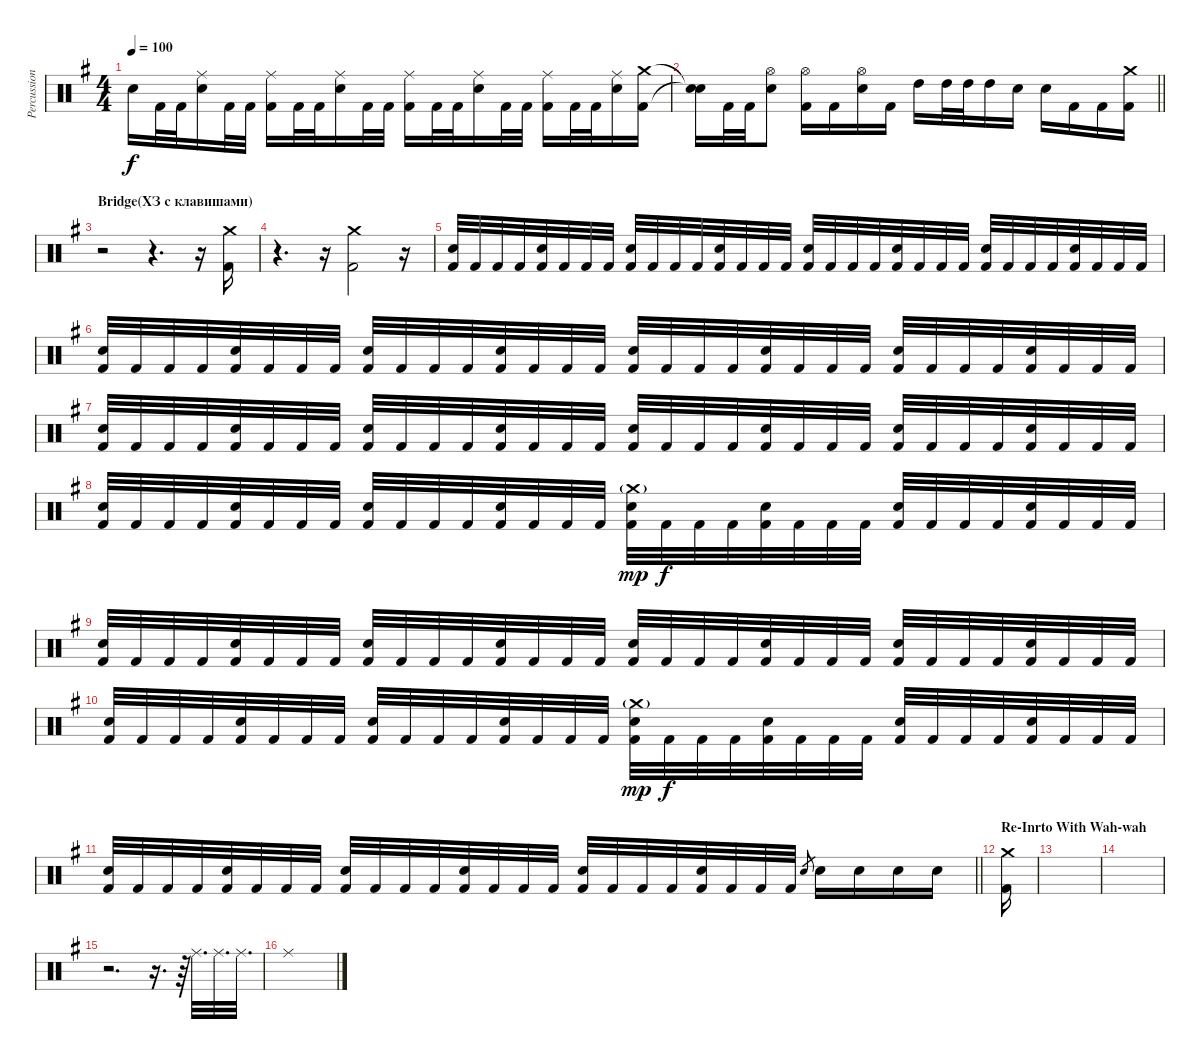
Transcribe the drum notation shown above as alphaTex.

\track ("Percussion" "Percussion") {instrument percussion}
\staff {score}
\articulation defaults
\ts (4 4)
\tempo 100
\clef neutral
\ks eminor "Snare (hit)"{t}.16{dy f} "Kick (hit) 2".32 "Kick (hit) 2".32
("Ride (middle)" "Snare (hit) 2").16 "Kick (hit) 2".32 "Kick (hit) 2".32 ("Ride (middle)" "Kick (hit) 2").16 "Kick (hit) 2".32 "Kick (hit) 2".32 ("Ride (middle)" "Snare (hit) 2").16 "Kick (hit) 2".32 "Kick (hit) 2".32 ("Ride (middle)" "Kick (hit) 2").16 "Kick (hit) 2".32 "Kick (hit) 2".32 ("Ride (middle)" "Snare (hit) 2").16 "Kick (hit) 2".32 "Kick (hit) 2".32 ("Ride (middle)" "Kick (hit) 2").16 "Kick (hit) 2".32 "Kick (hit) 2".32 ("Ride (middle)" "Snare (hit) 2").16 ("Crash medium (hit)" "Kick (hit) 2").16 |
\barLineRight lightlight
("Snare (hit)"{t} "Snare (hit)"{t}).16 "Kick (hit) 2".32 "Kick (hit) 2".32 ("Hi-Hat (open)" "Snare (hit) 2").8 ("Hi-Hat (open)" "Kick (hit) 2").16 "Kick (hit) 2".16 ("Hi-Hat (open)" "Snare (hit) 2").16 "Kick (hit) 2".16 "High Tom (hit)".16 "High Tom (hit)".32 "High Tom (hit)".32 "High Tom (hit)".16 "Snare (hit) 2".16 "Snare (hit) 2".16 "Kick (hit) 2".16 "Kick (hit) 2".16 ("Crash medium (hit)" "Kick (hit) 2").16 |
\section ("" "Bridge(ХЗ с клавишами)")
r.2 r.4{d} r.16 ("Crash medium (hit)" "Kick (hit) 2").16 |
r.4{d} r.16 ("Crash medium (hit)" "Kick (hit) 2").2 r.16 |
("Snare (hit) 2" "Kick (hit) 2").32 "Kick (hit) 2".32 "Kick (hit) 2".32 "Kick (hit) 2".32 ("Snare (hit) 2" "Kick (hit) 2").32 "Kick (hit) 2".32 "Kick (hit) 2".32 "Kick (hit) 2".32 ("Snare (hit) 2" "Kick (hit) 2").32 "Kick (hit) 2".32 "Kick (hit) 2".32 "Kick (hit) 2".32 ("Snare (hit) 2" "Kick (hit) 2").32 "Kick (hit) 2".32 "Kick (hit) 2".32 "Kick (hit) 2".32 ("Snare (hit) 2" "Kick (hit) 2").32 "Kick (hit) 2".32 "Kick (hit) 2".32 "Kick (hit) 2".32 ("Snare (hit) 2" "Kick (hit) 2").32 "Kick (hit) 2".32 "Kick (hit) 2".32 "Kick (hit) 2".32 ("Snare (hit) 2" "Kick (hit) 2").32 "Kick (hit) 2".32 "Kick (hit) 2".32 "Kick (hit) 2".32 ("Snare (hit) 2" "Kick (hit) 2").32 "Kick (hit) 2".32 "Kick (hit) 2".32 "Kick (hit) 2".32 |
("Snare (hit) 2" "Kick (hit) 2").32 "Kick (hit) 2".32 "Kick (hit) 2".32 "Kick (hit) 2".32 ("Snare (hit) 2" "Kick (hit) 2").32 "Kick (hit) 2".32 "Kick (hit) 2".32 "Kick (hit) 2".32 ("Snare (hit) 2" "Kick (hit) 2").32 "Kick (hit) 2".32 "Kick (hit) 2".32 "Kick (hit) 2".32 ("Snare (hit) 2" "Kick (hit) 2").32 "Kick (hit) 2".32 "Kick (hit) 2".32 "Kick (hit) 2".32 ("Snare (hit) 2" "Kick (hit) 2").32 "Kick (hit) 2".32 "Kick (hit) 2".32 "Kick (hit) 2".32 ("Snare (hit) 2" "Kick (hit) 2").32 "Kick (hit) 2".32 "Kick (hit) 2".32 "Kick (hit) 2".32 ("Snare (hit) 2" "Kick (hit) 2").32 "Kick (hit) 2".32 "Kick (hit) 2".32 "Kick (hit) 2".32 ("Snare (hit) 2" "Kick (hit) 2").32 "Kick (hit) 2".32 "Kick (hit) 2".32 "Kick (hit) 2".32 |
("Snare (hit) 2" "Kick (hit) 2").32 "Kick (hit) 2".32 "Kick (hit) 2".32 "Kick (hit) 2".32 ("Snare (hit) 2" "Kick (hit) 2").32 "Kick (hit) 2".32 "Kick (hit) 2".32 "Kick (hit) 2".32 ("Snare (hit) 2" "Kick (hit) 2").32 "Kick (hit) 2".32 "Kick (hit) 2".32 "Kick (hit) 2".32 ("Snare (hit) 2" "Kick (hit) 2").32 "Kick (hit) 2".32 "Kick (hit) 2".32 "Kick (hit) 2".32 ("Snare (hit) 2" "Kick (hit) 2").32 "Kick (hit) 2".32 "Kick (hit) 2".32 "Kick (hit) 2".32 ("Snare (hit) 2" "Kick (hit) 2").32 "Kick (hit) 2".32 "Kick (hit) 2".32 "Kick (hit) 2".32 ("Snare (hit) 2" "Kick (hit) 2").32 "Kick (hit) 2".32 "Kick (hit) 2".32 "Kick (hit) 2".32 ("Snare (hit) 2" "Kick (hit) 2").32 "Kick (hit) 2".32 "Kick (hit) 2".32 "Kick (hit) 2".32 |
("Snare (hit) 2" "Kick (hit) 2").32 "Kick (hit) 2".32 "Kick (hit) 2".32 "Kick (hit) 2".32 ("Snare (hit) 2" "Kick (hit) 2").32 "Kick (hit) 2".32 "Kick (hit) 2".32 "Kick (hit) 2".32 ("Snare (hit) 2" "Kick (hit) 2").32 "Kick (hit) 2".32 "Kick (hit) 2".32 "Kick (hit) 2".32 ("Snare (hit) 2" "Kick (hit) 2").32 "Kick (hit) 2".32 "Kick (hit) 2".32 "Kick (hit) 2".32 ("Crash medium (hit)"{g} "Snare (hit) 2" "Kick (hit) 2").32{dy mp} "Kick (hit) 2".32{dy f} "Kick (hit) 2".32 "Kick (hit) 2".32 ("Snare (hit) 2" "Kick (hit) 2").32 "Kick (hit) 2".32 "Kick (hit) 2".32 "Kick (hit) 2".32 ("Snare (hit) 2" "Kick (hit) 2").32 "Kick (hit) 2".32 "Kick (hit) 2".32 "Kick (hit) 2".32 ("Snare (hit) 2" "Kick (hit) 2").32 "Kick (hit) 2".32 "Kick (hit) 2".32 "Kick (hit) 2".32 |
("Snare (hit) 2" "Kick (hit) 2").32 "Kick (hit) 2".32 "Kick (hit) 2".32 "Kick (hit) 2".32 ("Snare (hit) 2" "Kick (hit) 2").32 "Kick (hit) 2".32 "Kick (hit) 2".32 "Kick (hit) 2".32 ("Snare (hit) 2" "Kick (hit) 2").32 "Kick (hit) 2".32 "Kick (hit) 2".32 "Kick (hit) 2".32 ("Snare (hit) 2" "Kick (hit) 2").32 "Kick (hit) 2".32 "Kick (hit) 2".32 "Kick (hit) 2".32 ("Snare (hit) 2" "Kick (hit) 2").32 "Kick (hit) 2".32 "Kick (hit) 2".32 "Kick (hit) 2".32 ("Snare (hit) 2" "Kick (hit) 2").32 "Kick (hit) 2".32 "Kick (hit) 2".32 "Kick (hit) 2".32 ("Snare (hit) 2" "Kick (hit) 2").32 "Kick (hit) 2".32 "Kick (hit) 2".32 "Kick (hit) 2".32 ("Snare (hit) 2" "Kick (hit) 2").32 "Kick (hit) 2".32 "Kick (hit) 2".32 "Kick (hit) 2".32 |
("Snare (hit) 2" "Kick (hit) 2").32 "Kick (hit) 2".32 "Kick (hit) 2".32 "Kick (hit) 2".32 ("Snare (hit) 2" "Kick (hit) 2").32 "Kick (hit) 2".32 "Kick (hit) 2".32 "Kick (hit) 2".32 ("Snare (hit) 2" "Kick (hit) 2").32 "Kick (hit) 2".32 "Kick (hit) 2".32 "Kick (hit) 2".32 ("Snare (hit) 2" "Kick (hit) 2").32 "Kick (hit) 2".32 "Kick (hit) 2".32 "Kick (hit) 2".32 ("Crash medium (hit)"{g} "Snare (hit) 2" "Kick (hit) 2").32{dy mp} "Kick (hit) 2".32{dy f} "Kick (hit) 2".32 "Kick (hit) 2".32 ("Snare (hit) 2" "Kick (hit) 2").32 "Kick (hit) 2".32 "Kick (hit) 2".32 "Kick (hit) 2".32 ("Snare (hit) 2" "Kick (hit) 2").32 "Kick (hit) 2".32 "Kick (hit) 2".32 "Kick (hit) 2".32 ("Snare (hit) 2" "Kick (hit) 2").32 "Kick (hit) 2".32 "Kick (hit) 2".32 "Kick (hit) 2".32 |
\barLineRight lightlight
("Snare (hit) 2" "Kick (hit) 2").32 "Kick (hit) 2".32 "Kick (hit) 2".32 "Kick (hit) 2".32 ("Snare (hit) 2" "Kick (hit) 2").32 "Kick (hit) 2".32 "Kick (hit) 2".32 "Kick (hit) 2".32 ("Snare (hit) 2" "Kick (hit) 2").32 "Kick (hit) 2".32 "Kick (hit) 2".32 "Kick (hit) 2".32 ("Snare (hit) 2" "Kick (hit) 2").32 "Kick (hit) 2".32 "Kick (hit) 2".32 "Kick (hit) 2".32 ("Snare (hit) 2" "Kick (hit) 2").32 "Kick (hit) 2".32 "Kick (hit) 2".32 "Kick (hit) 2".32 ("Snare (hit) 2" "Kick (hit) 2").32 "Kick (hit) 2".32 "Kick (hit) 2".32 "Kick (hit) 2".32 "Snare (hit) 2".8{gr} "Snare (hit) 2".16 "Snare (hit) 2".16 "Snare (hit) 2".16 "Snare (hit) 2".16 |
\section ("" "Re-Inrto With Wah-wah")
("Crash medium (hit)" "Kick (hit) 2").16 |
|
|
r.2{d} r.16{d} r.64 "Ride (middle)".32{d} "Ride (middle)".32{d} "Ride (middle)".32{d} |
"Ride (middle)".1
